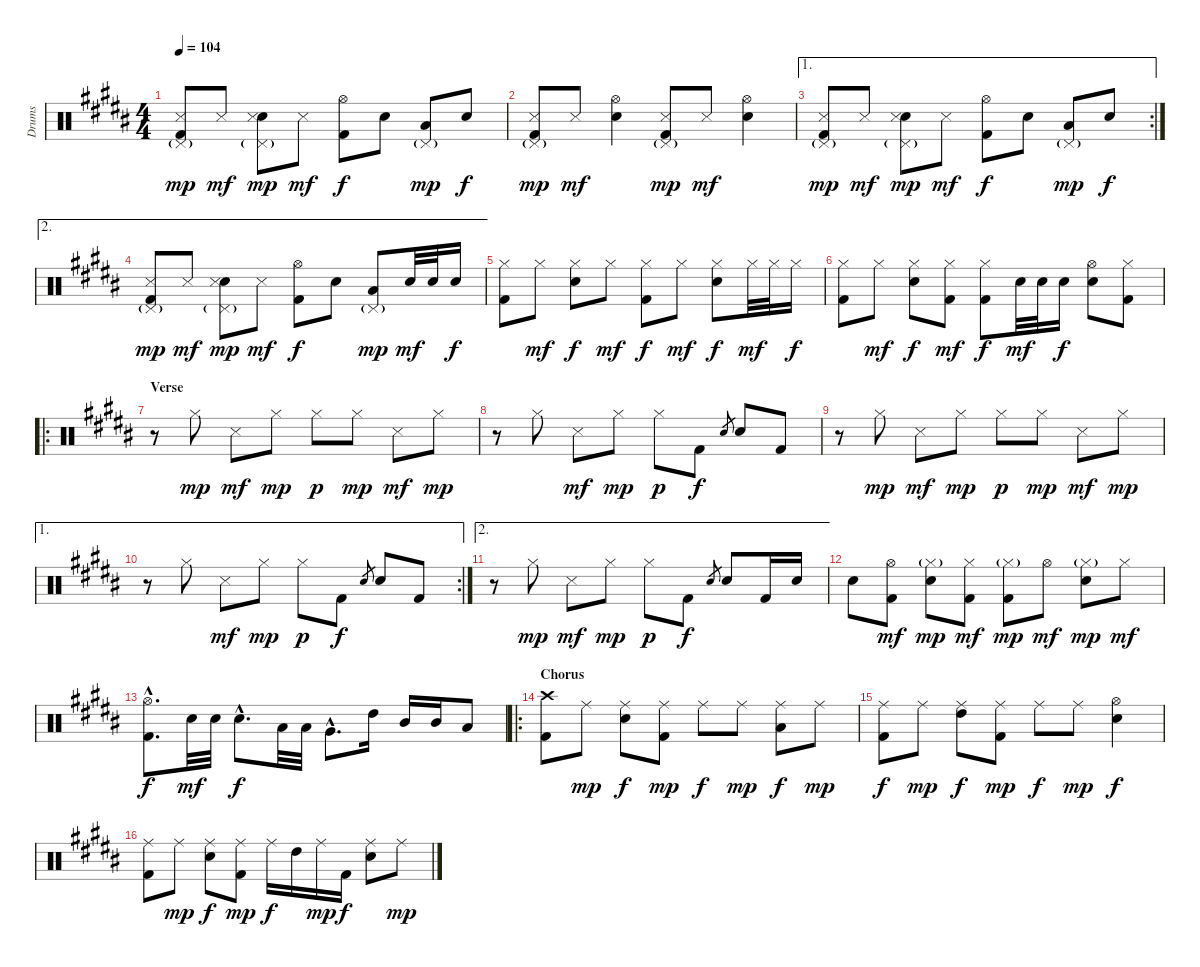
\track ("Drums" "Drums") {instrument percussion}
\staff {score}
\articulation defaults
\ts (4 4)
\tempo 104
\clef neutral
\ks b
("Kick (hit) 2" "Metronome (hit)" "Pedal Hi-Hat (hit)"{g}).8{dy mp} "Metronome (hit)".8{dy mf} ("Snare (hit) 2" "Metronome (hit)" "Pedal Hi-Hat (hit)"{g}).8{dy mp} "Metronome (hit)".8{dy mf} ("Kick (hit) 2" "Hi-Hat (open)").8{dy f} "Snare (hit) 2".8 ("Pedal Hi-Hat (hit)"{g} "Low Tom (hit)").8{dy mp} "Snare (hit) 2".8{dy f} |
("Kick (hit) 2" "Metronome (hit)" "Pedal Hi-Hat (hit)"{g}).8{dy mp} "Metronome (hit)".8{dy mf} ("Snare (hit) 2" "Hi-Hat (open)").4 ("Kick (hit) 2" "Metronome (hit)" "Pedal Hi-Hat (hit)"{g}).8{dy mp} "Metronome (hit)".8{dy mf} ("Snare (hit) 2" "Hi-Hat (open)").4 |
\ae 1
\rc 2
("Kick (hit) 2" "Metronome (hit)" "Pedal Hi-Hat (hit)"{g}).8{dy mp} "Metronome (hit)".8{dy mf} ("Snare (hit) 2" "Metronome (hit)" "Pedal Hi-Hat (hit)"{g}).8{dy mp} "Metronome (hit)".8{dy mf} ("Kick (hit) 2" "Hi-Hat (open)").8{dy f} "Snare (hit) 2".8 ("Pedal Hi-Hat (hit)"{g} "Low Tom (hit)").8{dy mp} "Snare (hit) 2".8{dy f} |
\ae 2
("Kick (hit) 2" "Metronome (hit)" "Pedal Hi-Hat (hit)"{g}).8{dy mp} "Metronome (hit)".8{dy mf} ("Snare (hit) 2" "Metronome (hit)" "Pedal Hi-Hat (hit)"{g}).8{dy mp} "Metronome (hit)".8{dy mf} ("Kick (hit) 2" "Hi-Hat (open)").8{dy f} "Snare (hit) 2".8 ("Pedal Hi-Hat (hit)"{g} "Low Tom (hit)").8{dy mp} "Snare (hit) 2".32{dy mf} "Snare (hit) 2".32 "Snare (hit) 2".16{dy f} |
("Kick (hit) 2" "Hi-Hat (closed)").8 "Hi-Hat (closed)".8{dy mf} ("Snare (hit) 2" "Hi-Hat (closed)").8{dy f} "Hi-Hat (closed)".8{dy mf} ("Kick (hit) 2" "Hi-Hat (closed)").8{dy f} "Hi-Hat (closed)".8{dy mf} ("Snare (hit) 2" "Hi-Hat (closed)").8{dy f} "Hi-Hat (closed)".32{dy mf} "Hi-Hat (closed)".32 "Hi-Hat (closed)".16{dy f} |
("Kick (hit) 2" "Hi-Hat (closed)").8 "Hi-Hat (closed)".8{dy mf} ("Snare (hit) 2" "Hi-Hat (closed)").8{dy f} ("Kick (hit) 2" "Hi-Hat (closed)").8{dy mf} ("Kick (hit) 2" "Hi-Hat (closed)").8{dy f} "Snare (hit) 2".32{dy mf} "Snare (hit) 2".32 "Snare (hit) 2".16{dy f} ("Snare (hit) 2" "Hi-Hat (open)").8 ("Kick (hit) 2" "Hi-Hat (closed)").8 |
\ro
\section ("" "Verse")
r.8 "Hi-Hat (closed)".8{dy mp} "Snare (side stick) 3".8{dy mf} "Hi-Hat (closed)".8{dy mp} "Hi-Hat (closed)".8{dy p} "Hi-Hat (closed)".8{dy mp} "Snare (side stick) 3".8{dy mf} "Hi-Hat (closed)".8{dy mp} |
r.8 "Hi-Hat (closed)".8 "Snare (side stick) 3".8{dy mf} "Hi-Hat (closed)".8{dy mp} "Hi-Hat (closed)".8{dy p} "Kick (hit) 2".8{dy f} "Snare (hit) 2".8{gr} "Snare (hit) 2".8 "Kick (hit) 2".8 |
r.8 "Hi-Hat (closed)".8{dy mp} "Snare (side stick) 3".8{dy mf} "Hi-Hat (closed)".8{dy mp} "Hi-Hat (closed)".8{dy p} "Hi-Hat (closed)".8{dy mp} "Snare (side stick) 3".8{dy mf} "Hi-Hat (closed)".8{dy mp} |
\ae 1
\rc 2
r.8 "Hi-Hat (closed)".8 "Snare (side stick) 3".8{dy mf} "Hi-Hat (closed)".8{dy mp} "Hi-Hat (closed)".8{dy p} "Kick (hit) 2".8{dy f} "Snare (hit) 2".8{gr} "Snare (hit) 2".8 "Kick (hit) 2".8 |
\ae 2
r.8 "Hi-Hat (closed)".8{dy mp} "Snare (side stick) 3".8{dy mf} "Hi-Hat (closed)".8{dy mp} "Hi-Hat (closed)".8{dy p} "Kick (hit) 2".8{dy f} "Snare (hit) 2".8{gr} "Snare (hit) 2".8 "Kick (hit) 2".16 "Snare (hit) 2".16 |
"Snare (hit) 2".8 ("Kick (hit) 2" "Hi-Hat (open)").8{dy mf} ("Snare (hit) 2" "Hi-Hat (closed)"{g}).8{dy mp} ("Kick (hit) 2" "Hi-Hat (closed)").8{dy mf} ("Kick (hit) 2" "Hi-Hat (closed)"{g}).8{dy mp} "Hi-Hat (open)".8{dy mf} ("Snare (hit) 2" "Hi-Hat (closed)"{g}).8{dy mp} "Hi-Hat (closed)".8{dy mf} |
("Kick (hit) 2"{hac} "Hi-Hat (open)"{hac}).8{d dy f} "Snare (hit) 2".32{dy mf} "Snare (hit) 2".32 "Snare (hit) 2"{hac}.8{d dy f} "Low Tom (hit)".32 "Low Tom (hit)".32 "Very Low Tom (hit)"{hac}.8{d} "High Tom (hit)".16 "Mid Tom (hit)".16 "Mid Tom (hit)".16 "Low Tom (hit)".8 |
\ro
\section ("" "Chorus")
("Kick (hit) 2" "Crash high (hit)").8 "Ride (middle)".8{dy mp} ("Ride (middle)" "Snare (hit) 2").8{dy f} ("Kick (hit) 2" "Ride (middle)").8{dy mp} "Ride (middle)".8{dy f} "Ride (middle)".8{dy mp} ("Ride (middle)" "Low Tom (hit)").8{dy f} "Ride (middle)".8{dy mp} |
("Kick (hit) 2" "Ride (middle)").8{dy f} "Ride (middle)".8{dy mp} ("Ride (middle)" "High Tom (hit)").8{dy f} ("Kick (hit) 2" "Ride (middle)").8{dy mp} "Ride (middle)".8{dy f} "Ride (middle)".8{dy mp} ("Snare (hit) 2" "Hi-Hat (open)").4{dy f} |
("Kick (hit) 2" "Ride (middle)").8 "Ride (middle)".8{dy mp} ("Ride (middle)" "Snare (hit) 2").8{dy f} ("Kick (hit) 2" "Ride (middle)").8{dy mp} "Ride (middle)".16{dy f} "High Tom (hit)".16 "Ride (middle)".16{dy mp} "Kick (hit) 2".16{dy f} ("Ride (middle)" "Snare (hit) 2").8 "Ride (middle)".8{dy mp}
